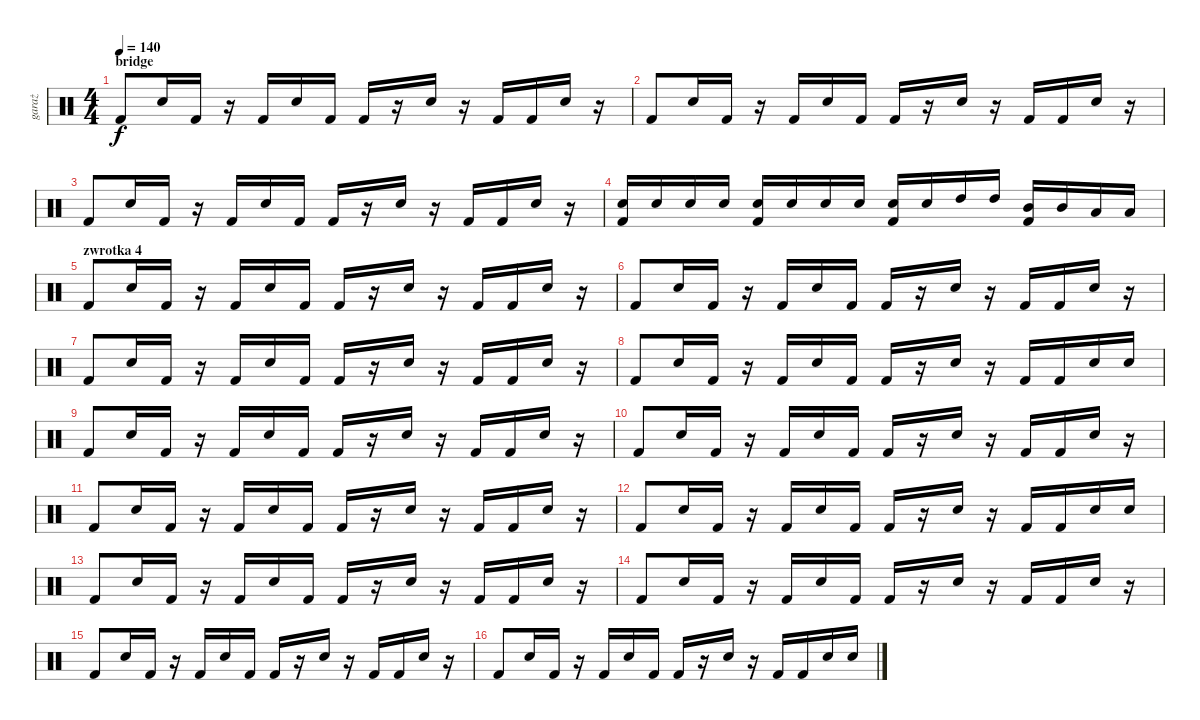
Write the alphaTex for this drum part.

\track ("garaż" "garaż") {instrument percussion}
\staff {score}
\articulation defaults
\ts (4 4)
\section ("" "bridge")
\tempo 140
\clef neutral
\ks c "Kick (hit) 2".8{dy f} "Snare (hit) 2".16 "Kick (hit) 2".16
r.16 "Kick (hit) 2".16 "Snare (hit) 2".16 "Kick (hit) 2".16 "Kick (hit) 2".16 r.16 "Snare (hit) 2".16 r.16 "Kick (hit) 2".16 "Kick (hit) 2".16 "Snare (hit) 2".16 r.16 |
"Kick (hit) 2".8 "Snare (hit) 2".16 "Kick (hit) 2".16 r.16 "Kick (hit) 2".16 "Snare (hit) 2".16 "Kick (hit) 2".16 "Kick (hit) 2".16 r.16 "Snare (hit) 2".16 r.16 "Kick (hit) 2".16 "Kick (hit) 2".16 "Snare (hit) 2".16 r.16 |
"Kick (hit) 2".8 "Snare (hit) 2".16 "Kick (hit) 2".16 r.16 "Kick (hit) 2".16 "Snare (hit) 2".16 "Kick (hit) 2".16 "Kick (hit) 2".16 r.16 "Snare (hit) 2".16 r.16 "Kick (hit) 2".16 "Kick (hit) 2".16 "Snare (hit) 2".16 r.16 |
("Snare (hit) 2" "Kick (hit) 2").16 "Snare (hit) 2".16 "Snare (hit) 2".16 "Snare (hit) 2".16 ("Snare (hit) 2" "Kick (hit) 2").16 "Snare (hit) 2".16 "Snare (hit) 2".16 "Snare (hit) 2".16 ("Snare (hit) 2" "Kick (hit) 2").16 "Snare (hit) 2".16 "High Tom (hit)".16 "High Tom (hit)".16 ("Mid Tom (hit)" "Kick (hit) 2").16 "Mid Tom (hit)".16 "Low Tom (hit)".16 "Low Tom (hit)".16 |
\section ("" "zwrotka 4")
"Kick (hit) 2".8 "Snare (hit) 2".16 "Kick (hit) 2".16 r.16 "Kick (hit) 2".16 "Snare (hit) 2".16 "Kick (hit) 2".16 "Kick (hit) 2".16 r.16 "Snare (hit) 2".16 r.16 "Kick (hit) 2".16 "Kick (hit) 2".16 "Snare (hit) 2".16 r.16 |
"Kick (hit) 2".8 "Snare (hit) 2".16 "Kick (hit) 2".16 r.16 "Kick (hit) 2".16 "Snare (hit) 2".16 "Kick (hit) 2".16 "Kick (hit) 2".16 r.16 "Snare (hit) 2".16 r.16 "Kick (hit) 2".16 "Kick (hit) 2".16 "Snare (hit) 2".16 r.16 |
"Kick (hit) 2".8 "Snare (hit) 2".16 "Kick (hit) 2".16 r.16 "Kick (hit) 2".16 "Snare (hit) 2".16 "Kick (hit) 2".16 "Kick (hit) 2".16 r.16 "Snare (hit) 2".16 r.16 "Kick (hit) 2".16 "Kick (hit) 2".16 "Snare (hit) 2".16 r.16 |
"Kick (hit) 2".8 "Snare (hit) 2".16 "Kick (hit) 2".16 r.16 "Kick (hit) 2".16 "Snare (hit) 2".16 "Kick (hit) 2".16 "Kick (hit) 2".16 r.16 "Snare (hit) 2".16 r.16 "Kick (hit) 2".16 "Kick (hit) 2".16 "Snare (hit) 2".16 "Snare (hit) 2".16 |
"Kick (hit) 2".8 "Snare (hit) 2".16 "Kick (hit) 2".16 r.16 "Kick (hit) 2".16 "Snare (hit) 2".16 "Kick (hit) 2".16 "Kick (hit) 2".16 r.16 "Snare (hit) 2".16 r.16 "Kick (hit) 2".16 "Kick (hit) 2".16 "Snare (hit) 2".16 r.16 |
"Kick (hit) 2".8 "Snare (hit) 2".16 "Kick (hit) 2".16 r.16 "Kick (hit) 2".16 "Snare (hit) 2".16 "Kick (hit) 2".16 "Kick (hit) 2".16 r.16 "Snare (hit) 2".16 r.16 "Kick (hit) 2".16 "Kick (hit) 2".16 "Snare (hit) 2".16 r.16 |
"Kick (hit) 2".8 "Snare (hit) 2".16 "Kick (hit) 2".16 r.16 "Kick (hit) 2".16 "Snare (hit) 2".16 "Kick (hit) 2".16 "Kick (hit) 2".16 r.16 "Snare (hit) 2".16 r.16 "Kick (hit) 2".16 "Kick (hit) 2".16 "Snare (hit) 2".16 r.16 |
"Kick (hit) 2".8 "Snare (hit) 2".16 "Kick (hit) 2".16 r.16 "Kick (hit) 2".16 "Snare (hit) 2".16 "Kick (hit) 2".16 "Kick (hit) 2".16 r.16 "Snare (hit) 2".16 r.16 "Kick (hit) 2".16 "Kick (hit) 2".16 "Snare (hit) 2".16 "Snare (hit) 2".16 |
"Kick (hit) 2".8 "Snare (hit) 2".16 "Kick (hit) 2".16 r.16 "Kick (hit) 2".16 "Snare (hit) 2".16 "Kick (hit) 2".16 "Kick (hit) 2".16 r.16 "Snare (hit) 2".16 r.16 "Kick (hit) 2".16 "Kick (hit) 2".16 "Snare (hit) 2".16 r.16 |
"Kick (hit) 2".8 "Snare (hit) 2".16 "Kick (hit) 2".16 r.16 "Kick (hit) 2".16 "Snare (hit) 2".16 "Kick (hit) 2".16 "Kick (hit) 2".16 r.16 "Snare (hit) 2".16 r.16 "Kick (hit) 2".16 "Kick (hit) 2".16 "Snare (hit) 2".16 r.16 |
"Kick (hit) 2".8 "Snare (hit) 2".16 "Kick (hit) 2".16 r.16 "Kick (hit) 2".16 "Snare (hit) 2".16 "Kick (hit) 2".16 "Kick (hit) 2".16 r.16 "Snare (hit) 2".16 r.16 "Kick (hit) 2".16 "Kick (hit) 2".16 "Snare (hit) 2".16 r.16 |
"Kick (hit) 2".8 "Snare (hit) 2".16 "Kick (hit) 2".16 r.16 "Kick (hit) 2".16 "Snare (hit) 2".16 "Kick (hit) 2".16 "Kick (hit) 2".16 r.16 "Snare (hit) 2".16 r.16 "Kick (hit) 2".16 "Kick (hit) 2".16 "Snare (hit) 2".16 "Snare (hit) 2".16
